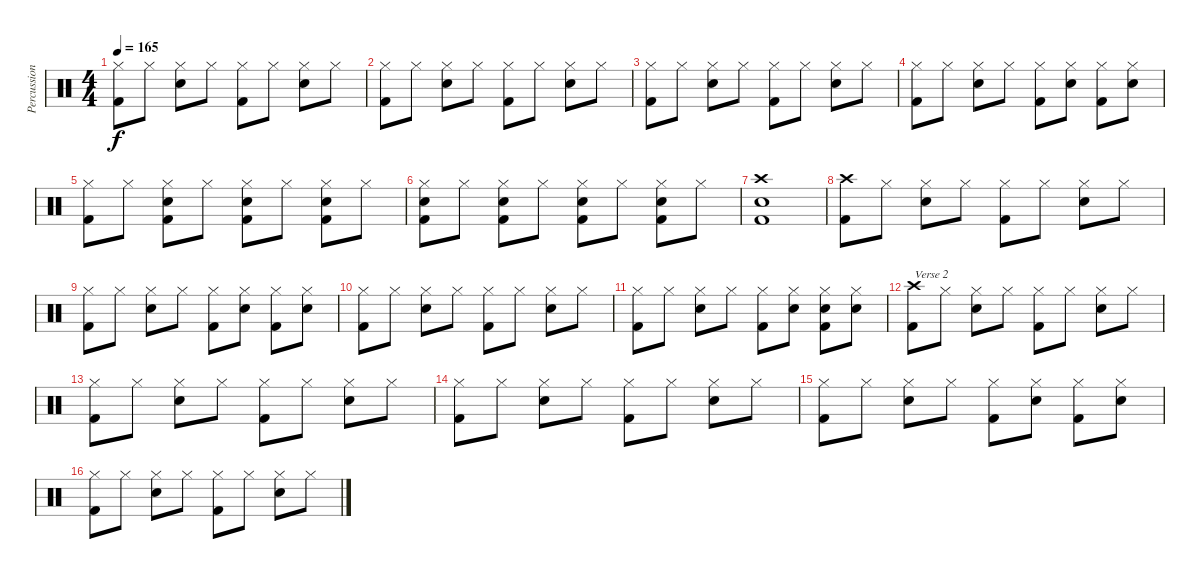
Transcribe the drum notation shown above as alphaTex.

\track ("Percussion" "Percussion") {instrument percussion}
\staff {score}
\articulation defaults
\ts (4 4)
\tempo 165
\clef neutral
\ks c
("Hi-Hat (closed)" "Kick (hit) 2").8{dy f} "Hi-Hat (closed)".8 ("Hi-Hat (closed)" "Snare (hit) 2").8 "Hi-Hat (closed)".8 ("Hi-Hat (closed)" "Kick (hit) 2").8 "Hi-Hat (closed)".8 ("Hi-Hat (closed)" "Snare (hit) 2").8 "Hi-Hat (closed)".8 |
("Hi-Hat (closed)" "Kick (hit) 2").8 "Hi-Hat (closed)".8 ("Hi-Hat (closed)" "Snare (hit) 2").8 "Hi-Hat (closed)".8 ("Hi-Hat (closed)" "Kick (hit) 2").8 "Hi-Hat (closed)".8 ("Hi-Hat (closed)" "Snare (hit) 2").8 "Hi-Hat (closed)".8 |
("Hi-Hat (closed)" "Kick (hit) 2").8 "Hi-Hat (closed)".8 ("Hi-Hat (closed)" "Snare (hit) 2").8 "Hi-Hat (closed)".8 ("Hi-Hat (closed)" "Kick (hit) 2").8 "Hi-Hat (closed)".8 ("Hi-Hat (closed)" "Snare (hit) 2").8 "Hi-Hat (closed)".8 |
("Hi-Hat (closed)" "Kick (hit) 2").8 "Hi-Hat (closed)".8 ("Hi-Hat (closed)" "Snare (hit) 2").8 "Hi-Hat (closed)".8 ("Hi-Hat (closed)" "Kick (hit) 2").8 ("Hi-Hat (closed)" "Snare (hit) 2").8 ("Hi-Hat (closed)" "Kick (hit) 2").8 ("Hi-Hat (closed)" "Snare (hit) 2").8 |
("Hi-Hat (closed)" "Kick (hit) 2").8 "Hi-Hat (closed)".8 ("Hi-Hat (closed)" "Snare (hit) 2" "Kick (hit) 2").8 "Hi-Hat (closed)".8 ("Hi-Hat (closed)" "Snare (hit) 2" "Kick (hit) 2").8 "Hi-Hat (closed)".8 ("Hi-Hat (closed)" "Snare (hit) 2" "Kick (hit) 2").8 "Hi-Hat (closed)".8 |
("Hi-Hat (closed)" "Snare (hit) 2" "Kick (hit) 2").8 "Hi-Hat (closed)".8 ("Hi-Hat (closed)" "Snare (hit) 2" "Kick (hit) 2").8 "Hi-Hat (closed)".8 ("Hi-Hat (closed)" "Snare (hit) 2" "Kick (hit) 2").8 "Hi-Hat (closed)".8 ("Hi-Hat (closed)" "Snare (hit) 2" "Kick (hit) 2").8 "Hi-Hat (closed)".8 |
("Crash high (hit)" "Snare (hit) 2" "Kick (hit) 2").1 |
("Crash high (hit)" "Kick (hit) 2").8 "Hi-Hat (closed)".8 ("Hi-Hat (closed)" "Snare (hit) 2").8 "Hi-Hat (closed)".8 ("Hi-Hat (closed)" "Kick (hit) 2").8 "Hi-Hat (closed)".8 ("Hi-Hat (closed)" "Snare (hit) 2").8 "Hi-Hat (closed)".8 |
("Hi-Hat (closed)" "Kick (hit) 2").8 "Hi-Hat (closed)".8 ("Hi-Hat (closed)" "Snare (hit) 2").8 "Hi-Hat (closed)".8 ("Hi-Hat (closed)" "Kick (hit) 2").8 ("Hi-Hat (closed)" "Snare (hit) 2").8 ("Hi-Hat (closed)" "Kick (hit) 2").8 ("Hi-Hat (closed)" "Snare (hit) 2").8 |
("Hi-Hat (closed)" "Kick (hit) 2").8 "Hi-Hat (closed)".8 ("Hi-Hat (closed)" "Snare (hit) 2").8 "Hi-Hat (closed)".8 ("Hi-Hat (closed)" "Kick (hit) 2").8 "Hi-Hat (closed)".8 ("Hi-Hat (closed)" "Snare (hit) 2").8 "Hi-Hat (closed)".8 |
("Hi-Hat (closed)" "Kick (hit) 2").8 "Hi-Hat (closed)".8 ("Hi-Hat (closed)" "Snare (hit) 2").8 "Hi-Hat (closed)".8 ("Hi-Hat (closed)" "Kick (hit) 2").8 ("Hi-Hat (closed)" "Snare (hit) 2").8 ("Hi-Hat (closed)" "Snare (hit) 2" "Kick (hit) 2").8 ("Hi-Hat (closed)" "Snare (hit) 2").8 |
("Crash high (hit)" "Kick (hit) 2").8{txt "Verse 2"} "Hi-Hat (closed)".8 ("Hi-Hat (closed)" "Snare (hit) 2").8 "Hi-Hat (closed)".8 ("Hi-Hat (closed)" "Kick (hit) 2").8 "Hi-Hat (closed)".8 ("Hi-Hat (closed)" "Snare (hit) 2").8 "Hi-Hat (closed)".8 |
("Hi-Hat (closed)" "Kick (hit) 2").8 "Hi-Hat (closed)".8 ("Hi-Hat (closed)" "Snare (hit) 2").8 "Hi-Hat (closed)".8 ("Hi-Hat (closed)" "Kick (hit) 2").8 "Hi-Hat (closed)".8 ("Hi-Hat (closed)" "Snare (hit) 2").8 "Hi-Hat (closed)".8 |
("Hi-Hat (closed)" "Kick (hit) 2").8 "Hi-Hat (closed)".8 ("Hi-Hat (closed)" "Snare (hit) 2").8 "Hi-Hat (closed)".8 ("Hi-Hat (closed)" "Kick (hit) 2").8 "Hi-Hat (closed)".8 ("Hi-Hat (closed)" "Snare (hit) 2").8 "Hi-Hat (closed)".8 |
("Hi-Hat (closed)" "Kick (hit) 2").8 "Hi-Hat (closed)".8 ("Hi-Hat (closed)" "Snare (hit) 2").8 "Hi-Hat (closed)".8 ("Hi-Hat (closed)" "Kick (hit) 2").8 ("Hi-Hat (closed)" "Snare (hit) 2").8 ("Hi-Hat (closed)" "Kick (hit) 2").8 ("Hi-Hat (closed)" "Snare (hit) 2").8 |
("Hi-Hat (closed)" "Kick (hit) 2").8 "Hi-Hat (closed)".8 ("Hi-Hat (closed)" "Snare (hit) 2").8 "Hi-Hat (closed)".8 ("Hi-Hat (closed)" "Kick (hit) 2").8 "Hi-Hat (closed)".8 ("Hi-Hat (closed)" "Snare (hit) 2").8 "Hi-Hat (closed)".8
